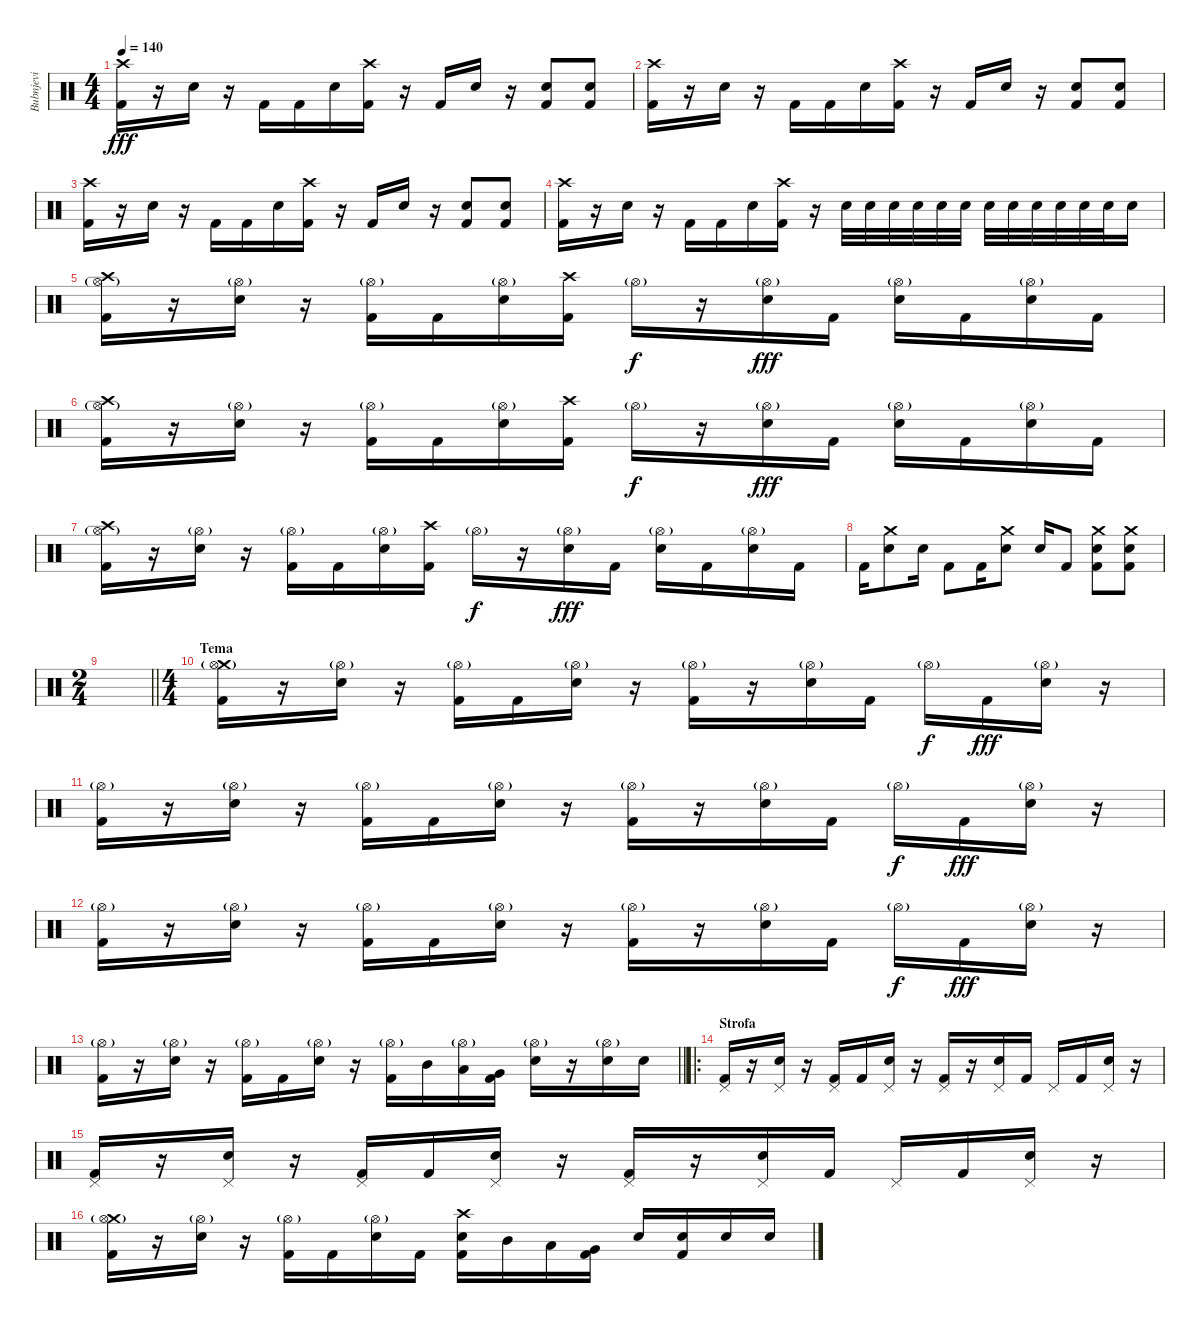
\track ("Bubnjevi" "Bubnjevi") {instrument percussion}
\staff {score}
\articulation defaults
\ts (4 4)
\tempo 140
\clef neutral
\ks c
("Crash high (hit)" "Kick (hit) 2").16{dy fff} r.16 "Snare (hit) 2".16 r.16 "Kick (hit) 2".16 "Kick (hit) 2".16 "Snare (hit) 2".16 ("Crash high (hit)" "Kick (hit) 2").16 r.16 "Kick (hit) 2".16 "Snare (hit) 2".16 r.16 ("Snare (hit) 2" "Kick (hit) 2").8 ("Snare (hit) 2" "Kick (hit) 2").8 |
("Crash high (hit)" "Kick (hit) 2").16 r.16 "Snare (hit) 2".16 r.16 "Kick (hit) 2".16 "Kick (hit) 2".16 "Snare (hit) 2".16 ("Crash high (hit)" "Kick (hit) 2").16 r.16 "Kick (hit) 2".16 "Snare (hit) 2".16 r.16 ("Snare (hit) 2" "Kick (hit) 2").8 ("Snare (hit) 2" "Kick (hit) 2").8 |
("Crash high (hit)" "Kick (hit) 2").16 r.16 "Snare (hit) 2".16 r.16 "Kick (hit) 2".16 "Kick (hit) 2".16 "Snare (hit) 2".16 ("Crash high (hit)" "Kick (hit) 2").16 r.16 "Kick (hit) 2".16 "Snare (hit) 2".16 r.16 ("Snare (hit) 2" "Kick (hit) 2").8 ("Snare (hit) 2" "Kick (hit) 2").8 |
("Crash high (hit)" "Kick (hit) 2").16 r.16 "Snare (hit) 2".16 r.16 "Kick (hit) 2".16 "Kick (hit) 2".16 "Snare (hit) 2".16 ("Crash high (hit)" "Kick (hit) 2").16 r.16 "Snare (hit) 2".32 "Snare (hit) 2".32 "Snare (hit) 2".32 "Snare (hit) 2".32 "Snare (hit) 2".32 "Snare (hit) 2".32 "Snare (hit) 2".32 "Snare (hit) 2".32 "Snare (hit) 2".32 "Snare (hit) 2".32 "Snare (hit) 2".32 "Snare (hit) 2".32 "Snare (hit) 2".16 |
("Crash high (hit)" "Hi-Hat (open)"{g} "Kick (hit) 2").16 r.16 ("Hi-Hat (open)"{g} "Snare (hit) 2").16 r.16 ("Hi-Hat (open)"{g} "Kick (hit) 2").16 "Kick (hit) 2".16 ("Hi-Hat (open)"{g} "Snare (hit) 2").16 ("Crash high (hit)" "Kick (hit) 2").16 "Hi-Hat (open)"{g}.16{dy f} r.16 ("Hi-Hat (open)"{g} "Snare (hit) 2").16{dy fff} "Kick (hit) 2".16 ("Hi-Hat (open)"{g} "Snare (hit) 2").16 "Kick (hit) 2".16 ("Hi-Hat (open)"{g} "Snare (hit) 2").16 "Kick (hit) 2".16 |
("Crash high (hit)" "Hi-Hat (open)"{g} "Kick (hit) 2").16 r.16 ("Hi-Hat (open)"{g} "Snare (hit) 2").16 r.16 ("Hi-Hat (open)"{g} "Kick (hit) 2").16 "Kick (hit) 2".16 ("Hi-Hat (open)"{g} "Snare (hit) 2").16 ("Crash high (hit)" "Kick (hit) 2").16 "Hi-Hat (open)"{g}.16{dy f} r.16 ("Hi-Hat (open)"{g} "Snare (hit) 2").16{dy fff} "Kick (hit) 2".16 ("Hi-Hat (open)"{g} "Snare (hit) 2").16 "Kick (hit) 2".16 ("Hi-Hat (open)"{g} "Snare (hit) 2").16 "Kick (hit) 2".16 |
("Crash high (hit)" "Hi-Hat (open)"{g} "Kick (hit) 2").16 r.16 ("Hi-Hat (open)"{g} "Snare (hit) 2").16 r.16 ("Hi-Hat (open)"{g} "Kick (hit) 2").16 "Kick (hit) 2".16 ("Hi-Hat (open)"{g} "Snare (hit) 2").16 ("Crash high (hit)" "Kick (hit) 2").16 "Hi-Hat (open)"{g}.16{dy f} r.16 ("Hi-Hat (open)"{g} "Snare (hit) 2").16{dy fff} "Kick (hit) 2".16 ("Hi-Hat (open)"{g} "Snare (hit) 2").16 "Kick (hit) 2".16 ("Hi-Hat (open)"{g} "Snare (hit) 2").16 "Kick (hit) 2".16 |
"Kick (hit) 2".16 ("Crash medium (hit)" "Snare (hit) 2").8 "Snare (hit) 2".16 "Kick (hit) 2".8 "Kick (hit) 2".16 ("Crash medium (hit)" "Snare (hit) 2").8 "Snare (hit) 2".16 "Kick (hit) 2".8 ("Crash medium (hit)" "Snare (hit) 2" "Kick (hit) 2").8 ("Crash medium (hit)" "Snare (hit) 2" "Kick (hit) 2").8 |
\ts (2 4)
\barLineRight lightlight
|
\ts (4 4)
\section ("" "Tema")
("Crash medium (hit)" "Hi-Hat (open)"{g} "Kick (hit) 2").16 r.16 ("Hi-Hat (open)"{g} "Snare (hit) 2").16 r.16 ("Hi-Hat (open)"{g} "Kick (hit) 2").16 "Kick (hit) 2".16 ("Hi-Hat (open)"{g} "Snare (hit) 2").16 r.16 ("Hi-Hat (open)"{g} "Kick (hit) 2").16 r.16 ("Hi-Hat (open)"{g} "Snare (hit) 2").16 "Kick (hit) 2".16 "Hi-Hat (open)"{g}.16{dy f} "Kick (hit) 2".16{dy fff} ("Hi-Hat (open)"{g} "Snare (hit) 2").16 r.16 |
("Hi-Hat (open)"{g} "Kick (hit) 2").16 r.16 ("Hi-Hat (open)"{g} "Snare (hit) 2").16 r.16 ("Hi-Hat (open)"{g} "Kick (hit) 2").16 "Kick (hit) 2".16 ("Hi-Hat (open)"{g} "Snare (hit) 2").16 r.16 ("Hi-Hat (open)"{g} "Kick (hit) 2").16 r.16 ("Hi-Hat (open)"{g} "Snare (hit) 2").16 "Kick (hit) 2".16 "Hi-Hat (open)"{g}.16{dy f} "Kick (hit) 2".16{dy fff} ("Hi-Hat (open)"{g} "Snare (hit) 2").16 r.16 |
("Hi-Hat (open)"{g} "Kick (hit) 2").16 r.16 ("Hi-Hat (open)"{g} "Snare (hit) 2").16 r.16 ("Hi-Hat (open)"{g} "Kick (hit) 2").16 "Kick (hit) 2".16 ("Hi-Hat (open)"{g} "Snare (hit) 2").16 r.16 ("Hi-Hat (open)"{g} "Kick (hit) 2").16 r.16 ("Hi-Hat (open)"{g} "Snare (hit) 2").16 "Kick (hit) 2".16 "Hi-Hat (open)"{g}.16{dy f} "Kick (hit) 2".16{dy fff} ("Hi-Hat (open)"{g} "Snare (hit) 2").16 r.16 |
\barLineRight lightlight
("Hi-Hat (open)"{g} "Kick (hit) 2").16 r.16 ("Hi-Hat (open)"{g} "Snare (hit) 2").16 r.16 ("Hi-Hat (open)"{g} "Kick (hit) 2").16 "Kick (hit) 2".16 ("Hi-Hat (open)"{g} "Snare (hit) 2").16 r.16 ("Hi-Hat (open)"{g} "Kick (hit) 2").16 "Mid Tom (hit)".16 ("Hi-Hat (open)"{g} "Low Tom (hit)").16 ("Very Low Tom (hit)" "Kick (hit) 2").16 ("Hi-Hat (open)"{g} "Snare (hit) 2").16 r.16 ("Hi-Hat (open)"{g} "Snare (hit) 2").16 "Snare (hit) 2".16 |
\ro
\section ("" "Strofa")
("Pedal Hi-Hat (hit)" "Kick (hit) 2").16 r.16 ("Pedal Hi-Hat (hit)" "Snare (hit) 2").16 r.16 ("Pedal Hi-Hat (hit)" "Kick (hit) 2").16 "Kick (hit) 2".16 ("Pedal Hi-Hat (hit)" "Snare (hit) 2").16 r.16 ("Pedal Hi-Hat (hit)" "Kick (hit) 2").16 r.16 ("Pedal Hi-Hat (hit)" "Snare (hit) 2").16 "Kick (hit) 2".16 "Pedal Hi-Hat (hit)".16 "Kick (hit) 2".16 ("Pedal Hi-Hat (hit)" "Snare (hit) 2").16 r.16 |
("Pedal Hi-Hat (hit)" "Kick (hit) 2").16 r.16 ("Pedal Hi-Hat (hit)" "Snare (hit) 2").16 r.16 ("Pedal Hi-Hat (hit)" "Kick (hit) 2").16 "Kick (hit) 2".16 ("Pedal Hi-Hat (hit)" "Snare (hit) 2").16 r.16 ("Pedal Hi-Hat (hit)" "Kick (hit) 2").16 r.16 ("Pedal Hi-Hat (hit)" "Snare (hit) 2").16 "Kick (hit) 2".16 "Pedal Hi-Hat (hit)".16 "Kick (hit) 2".16 ("Pedal Hi-Hat (hit)" "Snare (hit) 2").16 r.16 |
("Crash medium (hit)" "Hi-Hat (open)"{g} "Kick (hit) 2").16 r.16 ("Hi-Hat (open)"{g} "Snare (hit) 2").16 r.16 ("Hi-Hat (open)"{g} "Kick (hit) 2").16 "Kick (hit) 2".16 ("Hi-Hat (open)"{g} "Snare (hit) 2").16 "Kick (hit) 2".16 ("Crash high (hit)" "Snare (hit) 2" "Kick (hit) 2").16 "Mid Tom (hit)".16 "Low Tom (hit)".16 ("Very Low Tom (hit)" "Kick (hit) 2").16 "Snare (hit) 2".16 ("Snare (hit) 2" "Kick (hit) 2").16 "Snare (hit) 2".16 "Snare (hit) 2".16
